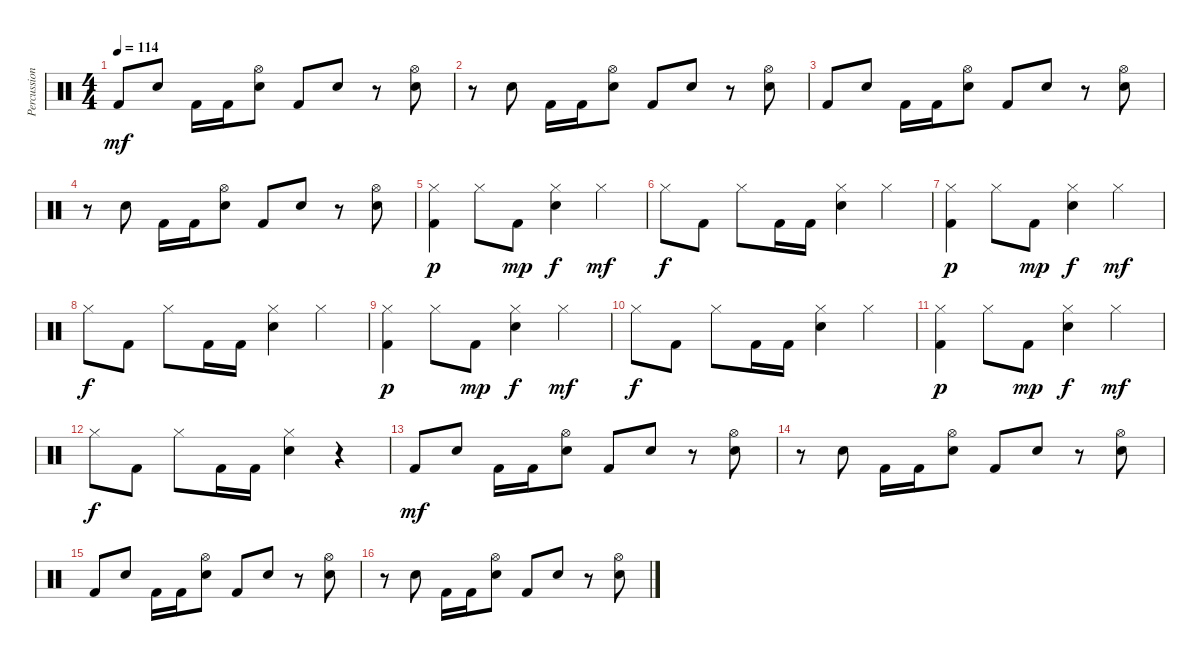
\track ("Percussion" "Percussion") {instrument percussion}
\staff {score}
\articulation defaults
\ts (4 4)
\tempo 114
\clef neutral
\ks c "Kick (hit) 2".8{dy mf} "Snare (hit) 2".8 "Kick (hit) 2".16 "Kick (hit) 2".16
("Hi-Hat (open)" "Snare (hit) 2").8 "Kick (hit) 2".8 "Snare (hit) 2".8 r.8 ("Hi-Hat (open)" "Snare (hit) 2").8 |
r.8 "Snare (hit) 2".8 "Kick (hit) 2".16 "Kick (hit) 2".16 ("Hi-Hat (open)" "Snare (hit) 2").8 "Kick (hit) 2".8 "Snare (hit) 2".8 r.8 ("Hi-Hat (open)" "Snare (hit) 2").8 |
"Kick (hit) 2".8 "Snare (hit) 2".8 "Kick (hit) 2".16 "Kick (hit) 2".16 ("Hi-Hat (open)" "Snare (hit) 2").8 "Kick (hit) 2".8 "Snare (hit) 2".8 r.8 ("Hi-Hat (open)" "Snare (hit) 2").8 |
r.8 "Snare (hit) 2".8 "Kick (hit) 2".16 "Kick (hit) 2".16 ("Hi-Hat (open)" "Snare (hit) 2").8 "Kick (hit) 2".8 "Snare (hit) 2".8 r.8 ("Hi-Hat (open)" "Snare (hit) 2").8 |
("Hi-Hat (closed)" "Kick (hit) 2").4{dy p} "Hi-Hat (closed)".8 "Kick (hit) 2".8{dy mp} ("Hi-Hat (closed)" "Snare (hit) 2").4{dy f} "Hi-Hat (closed)".4{dy mf} |
"Hi-Hat (closed)".8{dy f} "Kick (hit) 2".8 "Hi-Hat (closed)".8 "Kick (hit) 2".16 "Kick (hit) 2".16 ("Hi-Hat (closed)" "Snare (hit) 2").4 "Hi-Hat (closed)".4 |
("Hi-Hat (closed)" "Kick (hit) 2").4{dy p} "Hi-Hat (closed)".8 "Kick (hit) 2".8{dy mp} ("Hi-Hat (closed)" "Snare (hit) 2").4{dy f} "Hi-Hat (closed)".4{dy mf} |
"Hi-Hat (closed)".8{dy f} "Kick (hit) 2".8 "Hi-Hat (closed)".8 "Kick (hit) 2".16 "Kick (hit) 2".16 ("Hi-Hat (closed)" "Snare (hit) 2").4 "Hi-Hat (closed)".4 |
("Hi-Hat (closed)" "Kick (hit) 2").4{dy p} "Hi-Hat (closed)".8 "Kick (hit) 2".8{dy mp} ("Hi-Hat (closed)" "Snare (hit) 2").4{dy f} "Hi-Hat (closed)".4{dy mf} |
"Hi-Hat (closed)".8{dy f} "Kick (hit) 2".8 "Hi-Hat (closed)".8 "Kick (hit) 2".16 "Kick (hit) 2".16 ("Hi-Hat (closed)" "Snare (hit) 2").4 "Hi-Hat (closed)".4 |
("Hi-Hat (closed)" "Kick (hit) 2").4{dy p} "Hi-Hat (closed)".8 "Kick (hit) 2".8{dy mp} ("Hi-Hat (closed)" "Snare (hit) 2").4{dy f} "Hi-Hat (closed)".4{dy mf} |
"Hi-Hat (closed)".8{dy f} "Kick (hit) 2".8 "Hi-Hat (closed)".8 "Kick (hit) 2".16 "Kick (hit) 2".16 ("Hi-Hat (closed)" "Snare (hit) 2").4 r.4 |
"Kick (hit) 2".8{dy mf} "Snare (hit) 2".8 "Kick (hit) 2".16 "Kick (hit) 2".16 ("Hi-Hat (open)" "Snare (hit) 2").8 "Kick (hit) 2".8 "Snare (hit) 2".8 r.8 ("Hi-Hat (open)" "Snare (hit) 2").8 |
r.8 "Snare (hit) 2".8 "Kick (hit) 2".16 "Kick (hit) 2".16 ("Hi-Hat (open)" "Snare (hit) 2").8 "Kick (hit) 2".8 "Snare (hit) 2".8 r.8 ("Hi-Hat (open)" "Snare (hit) 2").8 |
"Kick (hit) 2".8 "Snare (hit) 2".8 "Kick (hit) 2".16 "Kick (hit) 2".16 ("Hi-Hat (open)" "Snare (hit) 2").8 "Kick (hit) 2".8 "Snare (hit) 2".8 r.8 ("Hi-Hat (open)" "Snare (hit) 2").8 |
r.8 "Snare (hit) 2".8 "Kick (hit) 2".16 "Kick (hit) 2".16 ("Hi-Hat (open)" "Snare (hit) 2").8 "Kick (hit) 2".8 "Snare (hit) 2".8 r.8 ("Hi-Hat (open)" "Snare (hit) 2").8
